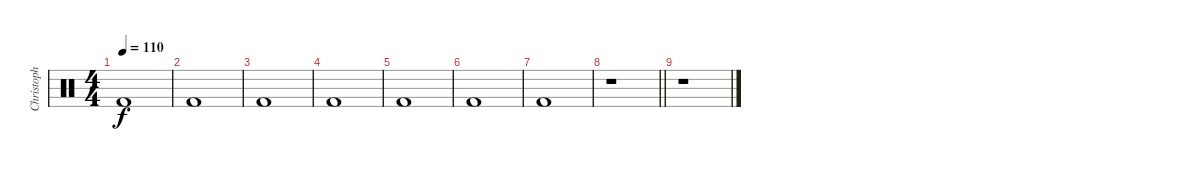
\track ("Christoph" "Christoph") {instrument percussion}
\staff {score}
\articulation defaults
\ts (4 4)
\tempo 110
\clef neutral
\ks c "Kick (hit) 2".1{dy f}
|
"Kick (hit) 2".1 |
"Kick (hit) 2".1 |
"Kick (hit) 2".1 |
"Kick (hit) 2".1 |
"Kick (hit) 2".1 |
"Kick (hit) 2".1 |
\barLineRight lightlight
r.1 |
r.1
